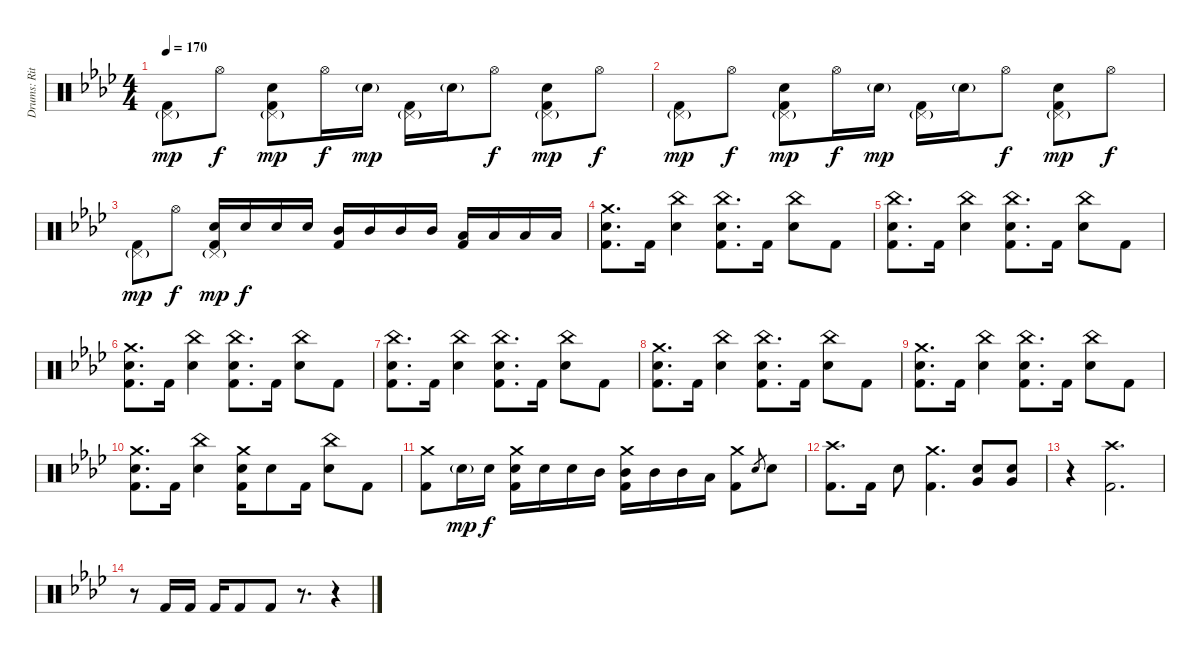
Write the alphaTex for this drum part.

\track ("Drums: Ritsu Tainaka" "Drums: Rit") {instrument percussion}
\staff {score}
\articulation defaults
\ts (4 4)
\tempo 170
\clef neutral
\ks fminor
("Pedal Hi-Hat (hit)"{g} "Kick (hit) 2").8{dy mp} "Hi-Hat (open)".8{dy f} ("Pedal Hi-Hat (hit)"{g} "Electric Snare (hit)" "Kick (hit) 2").8{dy mp} "Hi-Hat (open)".16{dy f} "Electric Snare (hit)"{g}.16{dy mp} ("Pedal Hi-Hat (hit)"{g} "Kick (hit) 2").16 "Electric Snare (hit)"{g}.16 "Hi-Hat (open)".8{dy f} ("Pedal Hi-Hat (hit)"{g} "Electric Snare (hit)" "Kick (hit) 2").8{dy mp} "Hi-Hat (open)".8{dy f} |
("Pedal Hi-Hat (hit)"{g} "Kick (hit) 2").8{dy mp} "Hi-Hat (open)".8{dy f} ("Pedal Hi-Hat (hit)"{g} "Electric Snare (hit)" "Kick (hit) 2").8{dy mp} "Hi-Hat (open)".16{dy f} "Electric Snare (hit)"{g}.16{dy mp} ("Pedal Hi-Hat (hit)"{g} "Kick (hit) 2").16 "Electric Snare (hit)"{g}.16 "Hi-Hat (open)".8{dy f} ("Pedal Hi-Hat (hit)"{g} "Electric Snare (hit)" "Kick (hit) 2").8{dy mp} "Hi-Hat (open)".8{dy f} |
("Pedal Hi-Hat (hit)"{g} "Kick (hit) 2").8{dy mp} "Hi-Hat (open)".8{dy f} ("Pedal Hi-Hat (hit)"{g} "Electric Snare (hit)" "Kick (hit) 2").16{dy mp} "Electric Snare (hit)".16{dy f} "Electric Snare (hit)".16 "Electric Snare (hit)".16 ("Mid Tom (hit)" "Kick (hit) 2").16 "Mid Tom (hit)".16 "Mid Tom (hit)".16 "Mid Tom (hit)".16 ("Low Tom (hit)" "Kick (hit) 2").16 "Low Tom (hit)".16 "Low Tom (hit)".16 "Low Tom (hit)".16 |
("Crash medium (hit)" "Electric Snare (hit)" "Kick (hit) 2").8{d} "Kick (hit) 2".16 ("China (hit)" "Electric Snare (hit)").4 ("China (hit)" "Electric Snare (hit)" "Kick (hit) 2").8{d} "Kick (hit) 2".16 ("China (hit)" "Electric Snare (hit)").8 "Kick (hit) 2".8 |
("China (hit)" "Electric Snare (hit)" "Kick (hit) 2").8{d} "Kick (hit) 2".16 ("China (hit)" "Electric Snare (hit)").4 ("China (hit)" "Electric Snare (hit)" "Kick (hit) 2").8{d} "Kick (hit) 2".16 ("China (hit)" "Electric Snare (hit)").8 "Kick (hit) 2".8 |
("Crash medium (hit)" "Electric Snare (hit)" "Kick (hit) 2").8{d} "Kick (hit) 2".16 ("China (hit)" "Electric Snare (hit)").4 ("China (hit)" "Electric Snare (hit)" "Kick (hit) 2").8{d} "Kick (hit) 2".16 ("China (hit)" "Electric Snare (hit)").8 "Kick (hit) 2".8 |
("China (hit)" "Electric Snare (hit)" "Kick (hit) 2").8{d} "Kick (hit) 2".16 ("China (hit)" "Electric Snare (hit)").4 ("China (hit)" "Electric Snare (hit)" "Kick (hit) 2").8{d} "Kick (hit) 2".16 ("China (hit)" "Electric Snare (hit)").8 "Kick (hit) 2".8 |
("Crash medium (hit)" "Electric Snare (hit)" "Kick (hit) 2").8{d} "Kick (hit) 2".16 ("China (hit)" "Electric Snare (hit)").4 ("China (hit)" "Electric Snare (hit)" "Kick (hit) 2").8{d} "Kick (hit) 2".16 ("China (hit)" "Electric Snare (hit)").8 "Kick (hit) 2".8 |
("Crash medium (hit)" "Electric Snare (hit)" "Kick (hit) 2").8{d} "Kick (hit) 2".16 ("China (hit)" "Electric Snare (hit)").4 ("China (hit)" "Electric Snare (hit)" "Kick (hit) 2").8{d} "Kick (hit) 2".16 ("China (hit)" "Electric Snare (hit)").8 "Kick (hit) 2".8 |
("Crash medium (hit)" "Electric Snare (hit)" "Kick (hit) 2").8{d} "Kick (hit) 2".16 ("China (hit)" "Electric Snare (hit)").4 ("Crash medium (hit)" "Electric Snare (hit)" "Kick (hit) 2").16 "Electric Snare (hit)".8 "Kick (hit) 2".16 ("China (hit)" "Electric Snare (hit)").8 "Kick (hit) 2".8 |
("Crash medium (hit)" "Kick (hit) 2").8 "Electric Snare (hit)"{g}.16{dy mp} "Electric Snare (hit)".16{dy f} ("Crash medium (hit)" "Electric Snare (hit)" "Kick (hit) 2").16 "Electric Snare (hit)".16 "Electric Snare (hit)".16 "Mid Tom (hit)".16 ("Crash medium (hit)" "Mid Tom (hit)" "Kick (hit) 2").16 "Mid Tom (hit)".16 "Mid Tom (hit)".16 "Low Tom (hit)".16 ("Crash medium (hit)" "Kick (hit) 2").8 "Electric Snare (hit)".8{gr} "Electric Snare (hit)".8 |
("Crash high (hit)" "Kick (hit) 2").8{d} "Kick (hit) 2".16 "Electric Snare (hit)".8 ("Crash medium (hit)" "Kick (hit) 2").4{d} ("Electric Snare (hit)" "Very Low Tom (hit)").8 ("Electric Snare (hit)" "Very Low Tom (hit)").8 |
r.4 ("Crash high (hit)" "Kick (hit) 2").2{d} |
r.8 "Kick (hit) 2".16 "Kick (hit) 2".16 "Kick (hit) 2".16 "Kick (hit) 2".8 "Kick (hit) 2".8 r.8{d} r.4
